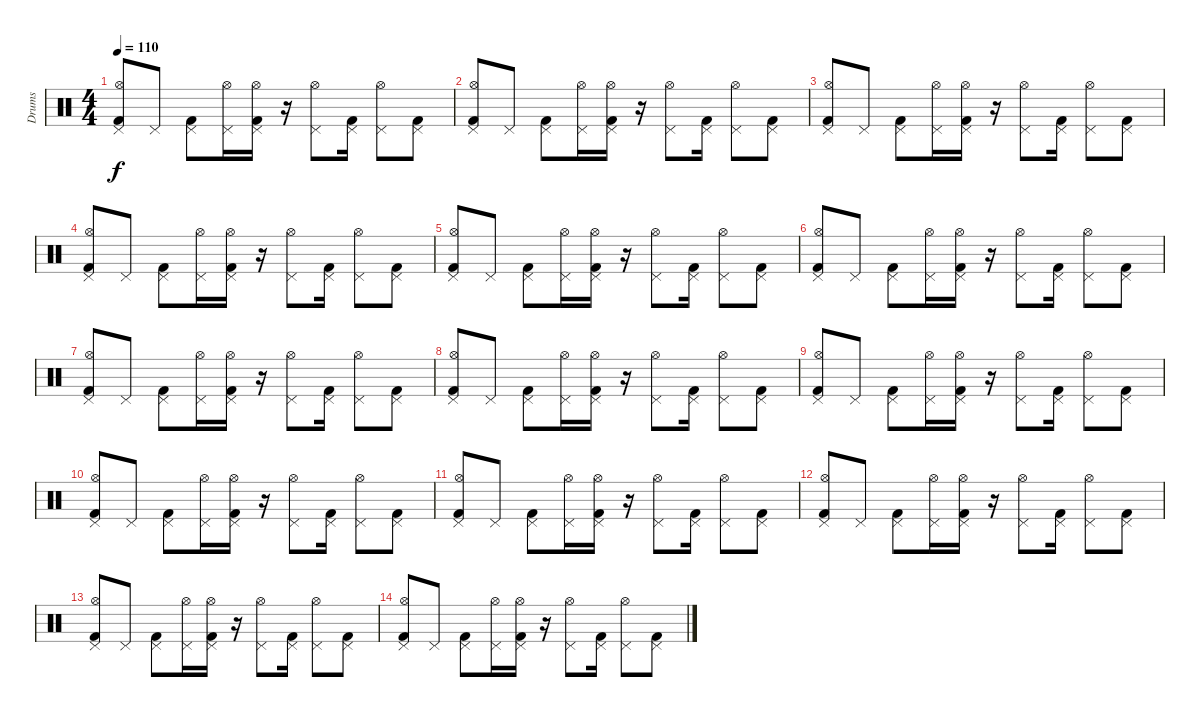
\track ("Drums" "Drums") {instrument percussion}
\staff {score}
\articulation defaults
\ts (4 4)
\tempo 110
\clef neutral
\ks c
("Kick (hit) 2" "Hi-Hat (open)" "Pedal Hi-Hat (hit)").8{dy f} "Pedal Hi-Hat (hit)".8 ("Kick (hit) 2" "Pedal Hi-Hat (hit)").8 ("Hi-Hat (open)" "Pedal Hi-Hat (hit)").16 ("Kick (hit) 2" "Hi-Hat (open)" "Pedal Hi-Hat (hit)").16 r.16 ("Hi-Hat (open)" "Pedal Hi-Hat (hit)").8 ("Kick (hit) 2" "Pedal Hi-Hat (hit)").16 ("Hi-Hat (open)" "Pedal Hi-Hat (hit)").8 ("Kick (hit) 2" "Pedal Hi-Hat (hit)").8 |
("Kick (hit) 2" "Hi-Hat (open)" "Pedal Hi-Hat (hit)").8 "Pedal Hi-Hat (hit)".8 ("Kick (hit) 2" "Pedal Hi-Hat (hit)").8 ("Hi-Hat (open)" "Pedal Hi-Hat (hit)").16 ("Kick (hit) 2" "Hi-Hat (open)" "Pedal Hi-Hat (hit)").16 r.16 ("Hi-Hat (open)" "Pedal Hi-Hat (hit)").8 ("Kick (hit) 2" "Pedal Hi-Hat (hit)").16 ("Hi-Hat (open)" "Pedal Hi-Hat (hit)").8 ("Kick (hit) 2" "Pedal Hi-Hat (hit)").8 |
("Kick (hit) 2" "Hi-Hat (open)" "Pedal Hi-Hat (hit)").8 "Pedal Hi-Hat (hit)".8 ("Kick (hit) 2" "Pedal Hi-Hat (hit)").8 ("Hi-Hat (open)" "Pedal Hi-Hat (hit)").16 ("Kick (hit) 2" "Hi-Hat (open)" "Pedal Hi-Hat (hit)").16 r.16 ("Hi-Hat (open)" "Pedal Hi-Hat (hit)").8 ("Kick (hit) 2" "Pedal Hi-Hat (hit)").16 ("Hi-Hat (open)" "Pedal Hi-Hat (hit)").8 ("Kick (hit) 2" "Pedal Hi-Hat (hit)").8 |
("Kick (hit) 2" "Hi-Hat (open)" "Pedal Hi-Hat (hit)").8 "Pedal Hi-Hat (hit)".8 ("Kick (hit) 2" "Pedal Hi-Hat (hit)").8 ("Hi-Hat (open)" "Pedal Hi-Hat (hit)").16 ("Kick (hit) 2" "Hi-Hat (open)" "Pedal Hi-Hat (hit)").16 r.16 ("Hi-Hat (open)" "Pedal Hi-Hat (hit)").8 ("Kick (hit) 2" "Pedal Hi-Hat (hit)").16 ("Hi-Hat (open)" "Pedal Hi-Hat (hit)").8 ("Kick (hit) 2" "Pedal Hi-Hat (hit)").8 |
("Kick (hit) 2" "Hi-Hat (open)" "Pedal Hi-Hat (hit)").8 "Pedal Hi-Hat (hit)".8 ("Kick (hit) 2" "Pedal Hi-Hat (hit)").8 ("Hi-Hat (open)" "Pedal Hi-Hat (hit)").16 ("Kick (hit) 2" "Hi-Hat (open)" "Pedal Hi-Hat (hit)").16 r.16 ("Hi-Hat (open)" "Pedal Hi-Hat (hit)").8 ("Kick (hit) 2" "Pedal Hi-Hat (hit)").16 ("Hi-Hat (open)" "Pedal Hi-Hat (hit)").8 ("Kick (hit) 2" "Pedal Hi-Hat (hit)").8 |
("Kick (hit) 2" "Hi-Hat (open)" "Pedal Hi-Hat (hit)").8 "Pedal Hi-Hat (hit)".8 ("Kick (hit) 2" "Pedal Hi-Hat (hit)").8 ("Hi-Hat (open)" "Pedal Hi-Hat (hit)").16 ("Kick (hit) 2" "Hi-Hat (open)" "Pedal Hi-Hat (hit)").16 r.16 ("Hi-Hat (open)" "Pedal Hi-Hat (hit)").8 ("Kick (hit) 2" "Pedal Hi-Hat (hit)").16 ("Hi-Hat (open)" "Pedal Hi-Hat (hit)").8 ("Kick (hit) 2" "Pedal Hi-Hat (hit)").8 |
("Kick (hit) 2" "Hi-Hat (open)" "Pedal Hi-Hat (hit)").8 "Pedal Hi-Hat (hit)".8 ("Kick (hit) 2" "Pedal Hi-Hat (hit)").8 ("Hi-Hat (open)" "Pedal Hi-Hat (hit)").16 ("Kick (hit) 2" "Hi-Hat (open)" "Pedal Hi-Hat (hit)").16 r.16 ("Hi-Hat (open)" "Pedal Hi-Hat (hit)").8 ("Kick (hit) 2" "Pedal Hi-Hat (hit)").16 ("Hi-Hat (open)" "Pedal Hi-Hat (hit)").8 ("Kick (hit) 2" "Pedal Hi-Hat (hit)").8 |
("Kick (hit) 2" "Hi-Hat (open)" "Pedal Hi-Hat (hit)").8 "Pedal Hi-Hat (hit)".8 ("Kick (hit) 2" "Pedal Hi-Hat (hit)").8 ("Hi-Hat (open)" "Pedal Hi-Hat (hit)").16 ("Kick (hit) 2" "Hi-Hat (open)" "Pedal Hi-Hat (hit)").16 r.16 ("Hi-Hat (open)" "Pedal Hi-Hat (hit)").8 ("Kick (hit) 2" "Pedal Hi-Hat (hit)").16 ("Hi-Hat (open)" "Pedal Hi-Hat (hit)").8 ("Kick (hit) 2" "Pedal Hi-Hat (hit)").8 |
("Kick (hit) 2" "Hi-Hat (open)" "Pedal Hi-Hat (hit)").8 "Pedal Hi-Hat (hit)".8 ("Kick (hit) 2" "Pedal Hi-Hat (hit)").8 ("Hi-Hat (open)" "Pedal Hi-Hat (hit)").16 ("Kick (hit) 2" "Hi-Hat (open)" "Pedal Hi-Hat (hit)").16 r.16 ("Hi-Hat (open)" "Pedal Hi-Hat (hit)").8 ("Kick (hit) 2" "Pedal Hi-Hat (hit)").16 ("Hi-Hat (open)" "Pedal Hi-Hat (hit)").8 ("Kick (hit) 2" "Pedal Hi-Hat (hit)").8 |
("Kick (hit) 2" "Hi-Hat (open)" "Pedal Hi-Hat (hit)").8 "Pedal Hi-Hat (hit)".8 ("Kick (hit) 2" "Pedal Hi-Hat (hit)").8 ("Hi-Hat (open)" "Pedal Hi-Hat (hit)").16 ("Kick (hit) 2" "Hi-Hat (open)" "Pedal Hi-Hat (hit)").16 r.16 ("Hi-Hat (open)" "Pedal Hi-Hat (hit)").8 ("Kick (hit) 2" "Pedal Hi-Hat (hit)").16 ("Hi-Hat (open)" "Pedal Hi-Hat (hit)").8 ("Kick (hit) 2" "Pedal Hi-Hat (hit)").8 |
("Kick (hit) 2" "Hi-Hat (open)" "Pedal Hi-Hat (hit)").8 "Pedal Hi-Hat (hit)".8 ("Kick (hit) 2" "Pedal Hi-Hat (hit)").8 ("Hi-Hat (open)" "Pedal Hi-Hat (hit)").16 ("Kick (hit) 2" "Hi-Hat (open)" "Pedal Hi-Hat (hit)").16 r.16 ("Hi-Hat (open)" "Pedal Hi-Hat (hit)").8 ("Kick (hit) 2" "Pedal Hi-Hat (hit)").16 ("Hi-Hat (open)" "Pedal Hi-Hat (hit)").8 ("Kick (hit) 2" "Pedal Hi-Hat (hit)").8 |
("Kick (hit) 2" "Hi-Hat (open)" "Pedal Hi-Hat (hit)").8 "Pedal Hi-Hat (hit)".8 ("Kick (hit) 2" "Pedal Hi-Hat (hit)").8 ("Hi-Hat (open)" "Pedal Hi-Hat (hit)").16 ("Kick (hit) 2" "Hi-Hat (open)" "Pedal Hi-Hat (hit)").16 r.16 ("Hi-Hat (open)" "Pedal Hi-Hat (hit)").8 ("Kick (hit) 2" "Pedal Hi-Hat (hit)").16 ("Hi-Hat (open)" "Pedal Hi-Hat (hit)").8 ("Kick (hit) 2" "Pedal Hi-Hat (hit)").8 |
("Kick (hit) 2" "Hi-Hat (open)" "Pedal Hi-Hat (hit)").8 "Pedal Hi-Hat (hit)".8 ("Kick (hit) 2" "Pedal Hi-Hat (hit)").8 ("Hi-Hat (open)" "Pedal Hi-Hat (hit)").16 ("Kick (hit) 2" "Hi-Hat (open)" "Pedal Hi-Hat (hit)").16 r.16 ("Hi-Hat (open)" "Pedal Hi-Hat (hit)").8 ("Kick (hit) 2" "Pedal Hi-Hat (hit)").16 ("Hi-Hat (open)" "Pedal Hi-Hat (hit)").8 ("Kick (hit) 2" "Pedal Hi-Hat (hit)").8 |
("Kick (hit) 2" "Hi-Hat (open)" "Pedal Hi-Hat (hit)").8 "Pedal Hi-Hat (hit)".8 ("Kick (hit) 2" "Pedal Hi-Hat (hit)").8 ("Hi-Hat (open)" "Pedal Hi-Hat (hit)").16 ("Kick (hit) 2" "Hi-Hat (open)" "Pedal Hi-Hat (hit)").16 r.16 ("Hi-Hat (open)" "Pedal Hi-Hat (hit)").8 ("Kick (hit) 2" "Pedal Hi-Hat (hit)").16 ("Hi-Hat (open)" "Pedal Hi-Hat (hit)").8 ("Kick (hit) 2" "Pedal Hi-Hat (hit)").8
